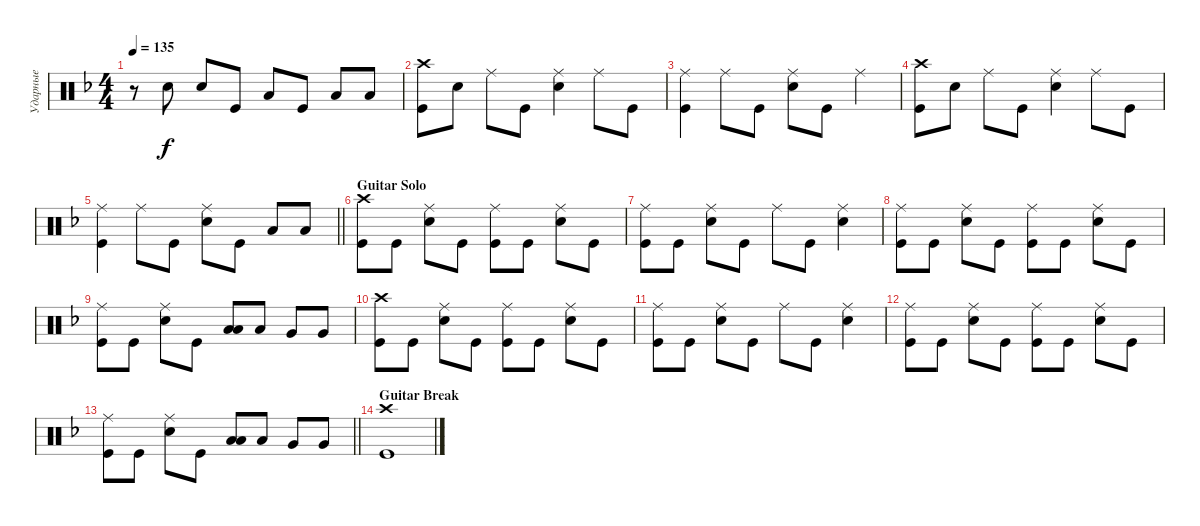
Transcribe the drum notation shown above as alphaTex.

\track ("Ударные" "Ударные") {instrument percussion}
\staff {score}
\articulation defaults
\ts (4 4)
\tempo 135
\clef neutral
\ks dminor
r.8{dy f} "Snare (hit) 2".8 "Snare (hit) 2".8 "Kick (hit)".8 "Low Tom (hit)".8 "Kick (hit)".8 "Low Tom (hit)".8 "Low Tom (hit)".8 |
("Kick (hit)" "Crash high (hit)").8 "Snare (hit) 2".8 "Ride (middle)".8 "Kick (hit)".8 ("Snare (hit) 2" "Ride (middle)").4 "Ride (middle)".8 "Kick (hit)".8 |
("Kick (hit)" "Ride (middle)").4 "Ride (middle)".8 "Kick (hit)".8 ("Snare (hit) 2" "Ride (middle)").8 "Kick (hit)".8 "Ride (middle)".4 |
("Kick (hit)" "Crash high (hit)").8 "Snare (hit) 2".8 "Ride (middle)".8 "Kick (hit)".8 ("Snare (hit) 2" "Ride (middle)").4 "Ride (middle)".8 "Kick (hit)".8 |
\barLineRight lightlight
("Kick (hit)" "Ride (middle)").4 "Ride (middle)".8 "Kick (hit)".8 ("Snare (hit) 2" "Ride (middle)").8 "Kick (hit)".8 "Low Tom (hit)".8 "Low Tom (hit)".8 |
\section ("" "Guitar Solo")
("Kick (hit)" "Crash high (hit)").8 "Kick (hit)".8 ("Snare (hit) 2" "Ride (middle)").8 "Kick (hit)".8 ("Kick (hit)" "Ride (middle)").8 "Kick (hit)".8 ("Snare (hit) 2" "Ride (middle)").8 "Kick (hit)".8 |
("Kick (hit)" "Ride (middle)").8 "Kick (hit)".8 ("Snare (hit) 2" "Ride (middle)").8 "Kick (hit)".8 "Ride (middle)".8 "Kick (hit)".8 ("Snare (hit) 2" "Ride (middle)").4 |
("Kick (hit)" "Ride (middle)").8 "Kick (hit)".8 ("Snare (hit) 2" "Ride (middle)").8 "Kick (hit)".8 ("Kick (hit)" "Ride (middle)").8 "Kick (hit)".8 ("Snare (hit) 2" "Ride (middle)").8 "Kick (hit)".8 |
("Kick (hit)" "Ride (middle)").8 "Kick (hit)".8 ("Snare (hit) 2" "Ride (middle)").8 "Kick (hit)".8 ("Low Tom (hit)" "Low Tom (hit)").8{bd 240} "Low Tom (hit)".8 "Very Low Tom (hit)".8 "Very Low Tom (hit)".8 |
("Kick (hit)" "Crash high (hit)").8 "Kick (hit)".8 ("Snare (hit) 2" "Ride (middle)").8 "Kick (hit)".8 ("Kick (hit)" "Ride (middle)").8 "Kick (hit)".8 ("Snare (hit) 2" "Ride (middle)").8 "Kick (hit)".8 |
("Kick (hit)" "Ride (middle)").8 "Kick (hit)".8 ("Snare (hit) 2" "Ride (middle)").8 "Kick (hit)".8 "Ride (middle)".8 "Kick (hit)".8 ("Snare (hit) 2" "Ride (middle)").4 |
("Kick (hit)" "Ride (middle)").8 "Kick (hit)".8 ("Snare (hit) 2" "Ride (middle)").8 "Kick (hit)".8 ("Kick (hit)" "Ride (middle)").8 "Kick (hit)".8 ("Snare (hit) 2" "Ride (middle)").8 "Kick (hit)".8 |
\barLineRight lightlight
("Kick (hit)" "Ride (middle)").8 "Kick (hit)".8 ("Snare (hit) 2" "Ride (middle)").8 "Kick (hit)".8 ("Low Tom (hit)" "Low Tom (hit)").8{bd 240} "Low Tom (hit)".8 "Very Low Tom (hit)".8 "Very Low Tom (hit)".8 |
\section ("" "Guitar Break")
("Kick (hit)" "Crash high (hit)").1
